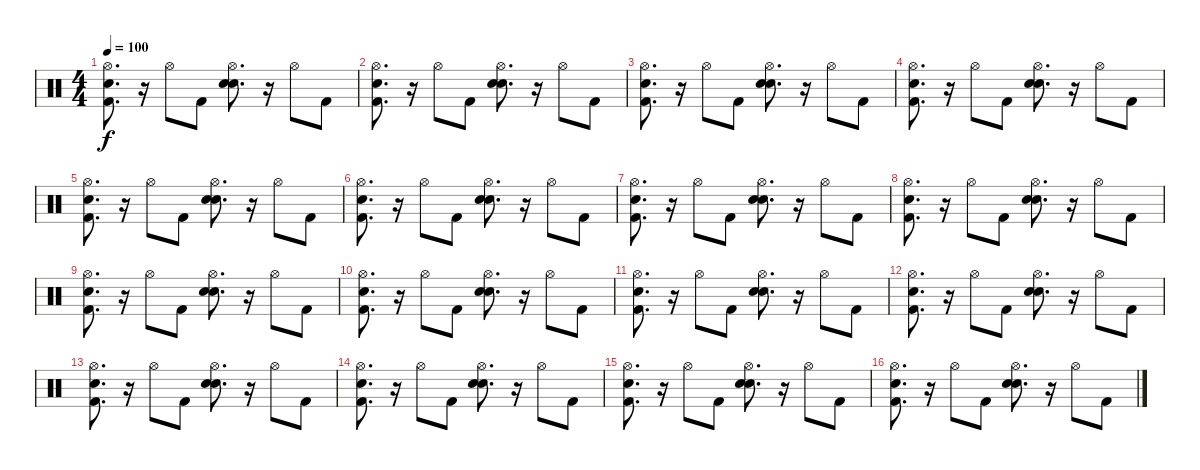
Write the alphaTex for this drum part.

\track "" {instrument percussion}
\staff {score}
\articulation defaults
\ts (4 4)
\tempo 100
\clef neutral
\ks c
("Snare (hit)" "Kick (hit) 2" "Hi-Hat (open)").8{d dy f} r.16 "Hi-Hat (open)".8 "Kick (hit) 2".8 ("Snare (hit)" "Snare (hit) 2" "Hi-Hat (open)").8{d} r.16 "Hi-Hat (open)".8 "Kick (hit) 2".8 |
("Snare (hit)" "Kick (hit) 2" "Hi-Hat (open)").8{d} r.16 "Hi-Hat (open)".8 "Kick (hit) 2".8 ("Snare (hit)" "Snare (hit) 2" "Hi-Hat (open)").8{d} r.16 "Hi-Hat (open)".8 "Kick (hit) 2".8 |
("Snare (hit)" "Kick (hit) 2" "Hi-Hat (open)").8{d} r.16 "Hi-Hat (open)".8 "Kick (hit) 2".8 ("Snare (hit)" "Snare (hit) 2" "Hi-Hat (open)").8{d} r.16 "Hi-Hat (open)".8 "Kick (hit) 2".8 |
("Snare (hit)" "Kick (hit) 2" "Hi-Hat (open)").8{d} r.16 "Hi-Hat (open)".8 "Kick (hit) 2".8 ("Snare (hit)" "Snare (hit) 2" "Hi-Hat (open)").8{d} r.16 "Hi-Hat (open)".8 "Kick (hit) 2".8 |
("Snare (hit)" "Kick (hit) 2" "Hi-Hat (open)").8{d} r.16 "Hi-Hat (open)".8 "Kick (hit) 2".8 ("Snare (hit)" "Snare (hit) 2" "Hi-Hat (open)").8{d} r.16 "Hi-Hat (open)".8 "Kick (hit) 2".8 |
("Snare (hit)" "Kick (hit) 2" "Hi-Hat (open)").8{d} r.16 "Hi-Hat (open)".8 "Kick (hit) 2".8 ("Snare (hit)" "Snare (hit) 2" "Hi-Hat (open)").8{d} r.16 "Hi-Hat (open)".8 "Kick (hit) 2".8 |
("Snare (hit)" "Kick (hit) 2" "Hi-Hat (open)").8{d} r.16 "Hi-Hat (open)".8 "Kick (hit) 2".8 ("Snare (hit)" "Snare (hit) 2" "Hi-Hat (open)").8{d} r.16 "Hi-Hat (open)".8 "Kick (hit) 2".8 |
("Snare (hit)" "Kick (hit) 2" "Hi-Hat (open)").8{d} r.16 "Hi-Hat (open)".8 "Kick (hit) 2".8 ("Snare (hit)" "Snare (hit) 2" "Hi-Hat (open)").8{d} r.16 "Hi-Hat (open)".8 "Kick (hit) 2".8 |
("Snare (hit)" "Kick (hit) 2" "Hi-Hat (open)").8{d} r.16 "Hi-Hat (open)".8 "Kick (hit) 2".8 ("Snare (hit)" "Snare (hit) 2" "Hi-Hat (open)").8{d} r.16 "Hi-Hat (open)".8 "Kick (hit) 2".8 |
("Snare (hit)" "Kick (hit) 2" "Hi-Hat (open)").8{d} r.16 "Hi-Hat (open)".8 "Kick (hit) 2".8 ("Snare (hit)" "Snare (hit) 2" "Hi-Hat (open)").8{d} r.16 "Hi-Hat (open)".8 "Kick (hit) 2".8 |
("Snare (hit)" "Kick (hit) 2" "Hi-Hat (open)").8{d} r.16 "Hi-Hat (open)".8 "Kick (hit) 2".8 ("Snare (hit)" "Snare (hit) 2" "Hi-Hat (open)").8{d} r.16 "Hi-Hat (open)".8 "Kick (hit) 2".8 |
("Snare (hit)" "Kick (hit) 2" "Hi-Hat (open)").8{d} r.16 "Hi-Hat (open)".8 "Kick (hit) 2".8 ("Snare (hit)" "Snare (hit) 2" "Hi-Hat (open)").8{d} r.16 "Hi-Hat (open)".8 "Kick (hit) 2".8 |
("Snare (hit)" "Kick (hit) 2" "Hi-Hat (open)").8{d} r.16 "Hi-Hat (open)".8 "Kick (hit) 2".8 ("Snare (hit)" "Snare (hit) 2" "Hi-Hat (open)").8{d} r.16 "Hi-Hat (open)".8 "Kick (hit) 2".8 |
("Snare (hit)" "Kick (hit) 2" "Hi-Hat (open)").8{d} r.16 "Hi-Hat (open)".8 "Kick (hit) 2".8 ("Snare (hit)" "Snare (hit) 2" "Hi-Hat (open)").8{d} r.16 "Hi-Hat (open)".8 "Kick (hit) 2".8 |
("Snare (hit)" "Kick (hit) 2" "Hi-Hat (open)").8{d} r.16 "Hi-Hat (open)".8 "Kick (hit) 2".8 ("Snare (hit)" "Snare (hit) 2" "Hi-Hat (open)").8{d} r.16 "Hi-Hat (open)".8 "Kick (hit) 2".8 |
("Snare (hit)" "Kick (hit) 2" "Hi-Hat (open)").8{d} r.16 "Hi-Hat (open)".8 "Kick (hit) 2".8 ("Snare (hit)" "Snare (hit) 2" "Hi-Hat (open)").8{d} r.16 "Hi-Hat (open)".8 "Kick (hit) 2".8
